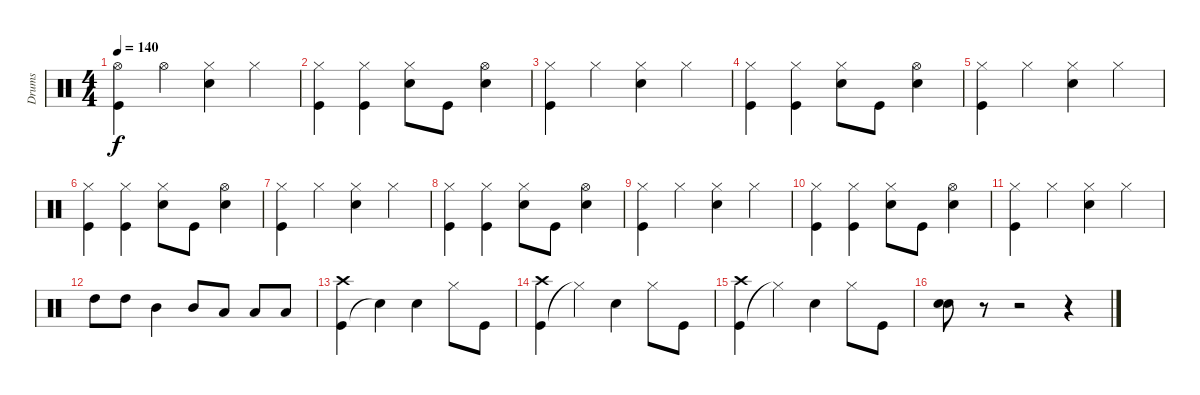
\track ("Drums" "Drums") {instrument percussion}
\staff {score}
\articulation defaults
\ts (4 4)
\tempo 140
\clef neutral
\ks c
("Kick (hit)" "Hi-Hat (open)").4{dy f} "Hi-Hat (open)".4 ("Snare (hit) 2" "Hi-Hat (closed)").4 "Hi-Hat (closed)".4 |
("Kick (hit)" "Hi-Hat (closed)").4 ("Kick (hit)" "Hi-Hat (closed)").4 ("Snare (hit) 2" "Hi-Hat (closed)").8 "Kick (hit)".8 ("Snare (hit) 2" "Hi-Hat (open)").4 |
("Kick (hit)" "Hi-Hat (closed)").4 "Hi-Hat (closed)".4 ("Snare (hit) 2" "Hi-Hat (closed)").4 "Hi-Hat (closed)".4 |
("Kick (hit)" "Hi-Hat (closed)").4 ("Kick (hit)" "Hi-Hat (closed)").4 ("Snare (hit) 2" "Hi-Hat (closed)").8 "Kick (hit)".8 ("Snare (hit) 2" "Hi-Hat (open)").4 |
("Kick (hit)" "Hi-Hat (closed)").4 "Hi-Hat (closed)".4 ("Snare (hit) 2" "Hi-Hat (closed)").4 "Hi-Hat (closed)".4 |
("Kick (hit)" "Hi-Hat (closed)").4 ("Kick (hit)" "Hi-Hat (closed)").4 ("Snare (hit) 2" "Hi-Hat (closed)").8 "Kick (hit)".8 ("Snare (hit) 2" "Hi-Hat (open)").4 |
("Kick (hit)" "Hi-Hat (closed)").4 "Hi-Hat (closed)".4 ("Snare (hit) 2" "Hi-Hat (closed)").4 "Hi-Hat (closed)".4 |
("Kick (hit)" "Hi-Hat (closed)").4 ("Kick (hit)" "Hi-Hat (closed)").4 ("Snare (hit) 2" "Hi-Hat (closed)").8 "Kick (hit)".8 ("Snare (hit) 2" "Hi-Hat (open)").4 |
("Kick (hit)" "Hi-Hat (closed)").4 "Hi-Hat (closed)".4 ("Snare (hit) 2" "Hi-Hat (closed)").4 "Hi-Hat (closed)".4 |
("Kick (hit)" "Hi-Hat (closed)").4 ("Kick (hit)" "Hi-Hat (closed)").4 ("Snare (hit) 2" "Hi-Hat (closed)").8 "Kick (hit)".8 ("Snare (hit) 2" "Hi-Hat (open)").4 |
("Kick (hit)" "Hi-Hat (closed)").4 "Hi-Hat (closed)".4 ("Snare (hit) 2" "Hi-Hat (closed)").4 "Hi-Hat (closed)".4 |
"High Tom (hit)".8 "High Tom (hit)".8 "Mid Tom (hit)".4 "Mid Tom (hit)".8 "Low Tom (hit)".8 "Low Tom (hit)".8 "Low Floor Tom (hit)".8 |
("Kick (hit)" "Crash high (hit)").4 "Snare (hit) 2"{t}.4 "Snare (hit) 2".4 "Hi-Hat (closed)".8 "Kick (hit)".8 |
("Kick (hit)" "Crash high (hit)").4 "Hi-Hat (closed)"{t}.4 "Snare (hit) 2".4 "Hi-Hat (closed)".8 "Kick (hit)".8 |
("Kick (hit)" "Crash high (hit)").4 "Hi-Hat (closed)"{t}.4 "Snare (hit) 2".4 "Hi-Hat (closed)".8 "Kick (hit)".8 |
("Snare (hit) 2" "Electric Snare (hit)").8 r.8 r.2 r.4
